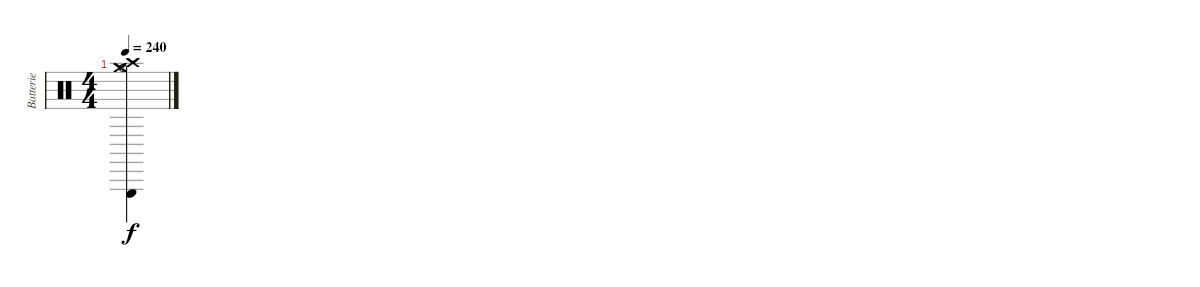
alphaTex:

\track ("Batterie" "Batterie") {instrument percussion}
\staff {score}
\articulation defaults
\ts (4 4)
\tempo 240
\clef neutral
\ks c
("Crash high (hit)" "Triangle (hit)" "Crash medium (hit)" "Hi-Hat (open)").4{dy f}
